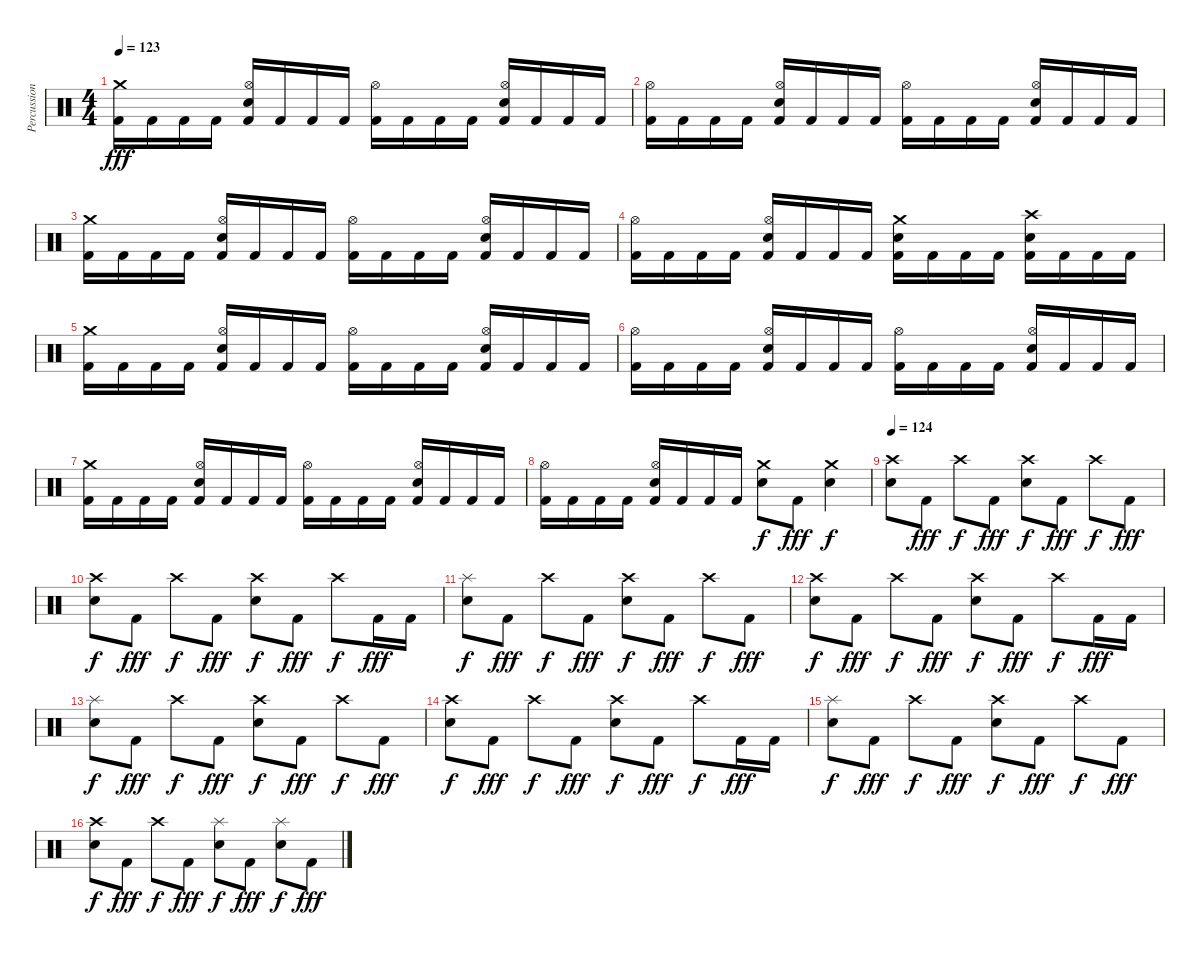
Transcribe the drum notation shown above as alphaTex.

\track ("Percussion" "Percussion") {instrument percussion}
\staff {score}
\articulation defaults
\ts (4 4)
\tempo 123
\clef neutral
\ks c
("Crash medium (hit)" "Kick (hit) 2").16{dy fff} "Kick (hit) 2".16 "Kick (hit) 2".16 "Kick (hit) 2".16 ("Hi-Hat (open)" "Snare (hit) 2" "Kick (hit) 2").16 "Kick (hit) 2".16 "Kick (hit) 2".16 "Kick (hit) 2".16 ("Hi-Hat (open)" "Kick (hit) 2").16 "Kick (hit) 2".16 "Kick (hit) 2".16 "Kick (hit) 2".16 ("Hi-Hat (open)" "Snare (hit) 2" "Kick (hit) 2").16 "Kick (hit) 2".16 "Kick (hit) 2".16 "Kick (hit) 2".16 |
("Hi-Hat (open)" "Kick (hit) 2").16 "Kick (hit) 2".16 "Kick (hit) 2".16 "Kick (hit) 2".16 ("Hi-Hat (open)" "Snare (hit) 2" "Kick (hit) 2").16 "Kick (hit) 2".16 "Kick (hit) 2".16 "Kick (hit) 2".16 ("Hi-Hat (open)" "Kick (hit) 2").16 "Kick (hit) 2".16 "Kick (hit) 2".16 "Kick (hit) 2".16 ("Hi-Hat (open)" "Snare (hit) 2" "Kick (hit) 2").16 "Kick (hit) 2".16 "Kick (hit) 2".16 "Kick (hit) 2".16 |
("Crash medium (hit)" "Kick (hit) 2").16 "Kick (hit) 2".16 "Kick (hit) 2".16 "Kick (hit) 2".16 ("Hi-Hat (open)" "Snare (hit) 2" "Kick (hit) 2").16 "Kick (hit) 2".16 "Kick (hit) 2".16 "Kick (hit) 2".16 ("Hi-Hat (open)" "Kick (hit) 2").16 "Kick (hit) 2".16 "Kick (hit) 2".16 "Kick (hit) 2".16 ("Hi-Hat (open)" "Snare (hit) 2" "Kick (hit) 2").16 "Kick (hit) 2".16 "Kick (hit) 2".16 "Kick (hit) 2".16 |
("Hi-Hat (open)" "Kick (hit) 2").16 "Kick (hit) 2".16 "Kick (hit) 2".16 "Kick (hit) 2".16 ("Hi-Hat (open)" "Snare (hit) 2" "Kick (hit) 2").16 "Kick (hit) 2".16 "Kick (hit) 2".16 "Kick (hit) 2".16 ("Crash medium (hit)" "Snare (hit) 2" "Kick (hit) 2").16 "Kick (hit) 2".16 "Kick (hit) 2".16 "Kick (hit) 2".16 ("Crash high (hit)" "Snare (hit) 2" "Kick (hit) 2").16 "Kick (hit) 2".16 "Kick (hit) 2".16 "Kick (hit) 2".16 |
("Crash medium (hit)" "Kick (hit) 2").16 "Kick (hit) 2".16 "Kick (hit) 2".16 "Kick (hit) 2".16 ("Hi-Hat (open)" "Snare (hit) 2" "Kick (hit) 2").16 "Kick (hit) 2".16 "Kick (hit) 2".16 "Kick (hit) 2".16 ("Hi-Hat (open)" "Kick (hit) 2").16 "Kick (hit) 2".16 "Kick (hit) 2".16 "Kick (hit) 2".16 ("Hi-Hat (open)" "Snare (hit) 2" "Kick (hit) 2").16 "Kick (hit) 2".16 "Kick (hit) 2".16 "Kick (hit) 2".16 |
("Hi-Hat (open)" "Kick (hit) 2").16 "Kick (hit) 2".16 "Kick (hit) 2".16 "Kick (hit) 2".16 ("Hi-Hat (open)" "Snare (hit) 2" "Kick (hit) 2").16 "Kick (hit) 2".16 "Kick (hit) 2".16 "Kick (hit) 2".16 ("Hi-Hat (open)" "Kick (hit) 2").16 "Kick (hit) 2".16 "Kick (hit) 2".16 "Kick (hit) 2".16 ("Hi-Hat (open)" "Snare (hit) 2" "Kick (hit) 2").16 "Kick (hit) 2".16 "Kick (hit) 2".16 "Kick (hit) 2".16 |
("Crash medium (hit)" "Kick (hit) 2").16 "Kick (hit) 2".16 "Kick (hit) 2".16 "Kick (hit) 2".16 ("Hi-Hat (open)" "Snare (hit) 2" "Kick (hit) 2").16 "Kick (hit) 2".16 "Kick (hit) 2".16 "Kick (hit) 2".16 ("Hi-Hat (open)" "Kick (hit) 2").16 "Kick (hit) 2".16 "Kick (hit) 2".16 "Kick (hit) 2".16 ("Hi-Hat (open)" "Snare (hit) 2" "Kick (hit) 2").16 "Kick (hit) 2".16 "Kick (hit) 2".16 "Kick (hit) 2".16 |
("Hi-Hat (open)" "Kick (hit) 2").16 "Kick (hit) 2".16 "Kick (hit) 2".16 "Kick (hit) 2".16 ("Hi-Hat (open)" "Snare (hit) 2" "Kick (hit) 2").16 "Kick (hit) 2".16 "Kick (hit) 2".16 "Kick (hit) 2".16 ("Crash medium (hit)" "Snare (hit) 2").8{dy f} "Kick (hit) 2".8{dy fff} ("Crash medium (hit)" "Snare (hit) 2").4{dy f} |
\tempo 124
("Crash high (hit)" "Snare (hit) 2").8 "Kick (hit) 2".8{dy fff} "Crash high (hit)".8{dy f} "Kick (hit) 2".8{dy fff} ("Crash high (hit)" "Snare (hit) 2").8{dy f} "Kick (hit) 2".8{dy fff} "Crash high (hit)".8{dy f} "Kick (hit) 2".8{dy fff} |
("Crash high (hit)" "Snare (hit) 2").8{dy f} "Kick (hit) 2".8{dy fff} "Crash high (hit)".8{dy f} "Kick (hit) 2".8{dy fff} ("Crash high (hit)" "Snare (hit) 2").8{dy f} "Kick (hit) 2".8{dy fff} "Crash high (hit)".8{dy f} "Kick (hit) 2".16{dy fff} "Kick (hit) 2".16 |
("Splash (hit)" "Snare (hit) 2").8{dy f} "Kick (hit) 2".8{dy fff} "Crash high (hit)".8{dy f} "Kick (hit) 2".8{dy fff} ("Crash high (hit)" "Snare (hit) 2").8{dy f} "Kick (hit) 2".8{dy fff} "Crash high (hit)".8{dy f} "Kick (hit) 2".8{dy fff} |
("Crash high (hit)" "Snare (hit) 2").8{dy f} "Kick (hit) 2".8{dy fff} "Crash high (hit)".8{dy f} "Kick (hit) 2".8{dy fff} ("Crash high (hit)" "Snare (hit) 2").8{dy f} "Kick (hit) 2".8{dy fff} "Crash high (hit)".8{dy f} "Kick (hit) 2".16{dy fff} "Kick (hit) 2".16 |
("Splash (hit)" "Snare (hit) 2").8{dy f} "Kick (hit) 2".8{dy fff} "Crash high (hit)".8{dy f} "Kick (hit) 2".8{dy fff} ("Crash high (hit)" "Snare (hit) 2").8{dy f} "Kick (hit) 2".8{dy fff} "Crash high (hit)".8{dy f} "Kick (hit) 2".8{dy fff} |
("Crash high (hit)" "Snare (hit) 2").8{dy f} "Kick (hit) 2".8{dy fff} "Crash high (hit)".8{dy f} "Kick (hit) 2".8{dy fff} ("Crash high (hit)" "Snare (hit) 2").8{dy f} "Kick (hit) 2".8{dy fff} "Crash high (hit)".8{dy f} "Kick (hit) 2".16{dy fff} "Kick (hit) 2".16 |
("Splash (hit)" "Snare (hit) 2").8{dy f} "Kick (hit) 2".8{dy fff} "Crash high (hit)".8{dy f} "Kick (hit) 2".8{dy fff} ("Crash high (hit)" "Snare (hit) 2").8{dy f} "Kick (hit) 2".8{dy fff} "Crash high (hit)".8{dy f} "Kick (hit) 2".8{dy fff} |
("Crash high (hit)" "Snare (hit) 2").8{dy f} "Kick (hit) 2".8{dy fff} "Crash high (hit)".8{dy f} "Kick (hit) 2".8{dy fff} ("Splash (hit)" "Snare (hit) 2").8{dy f} "Kick (hit) 2".8{dy fff} ("Splash (hit)" "Snare (hit) 2").8{dy f} "Kick (hit) 2".8{dy fff}
